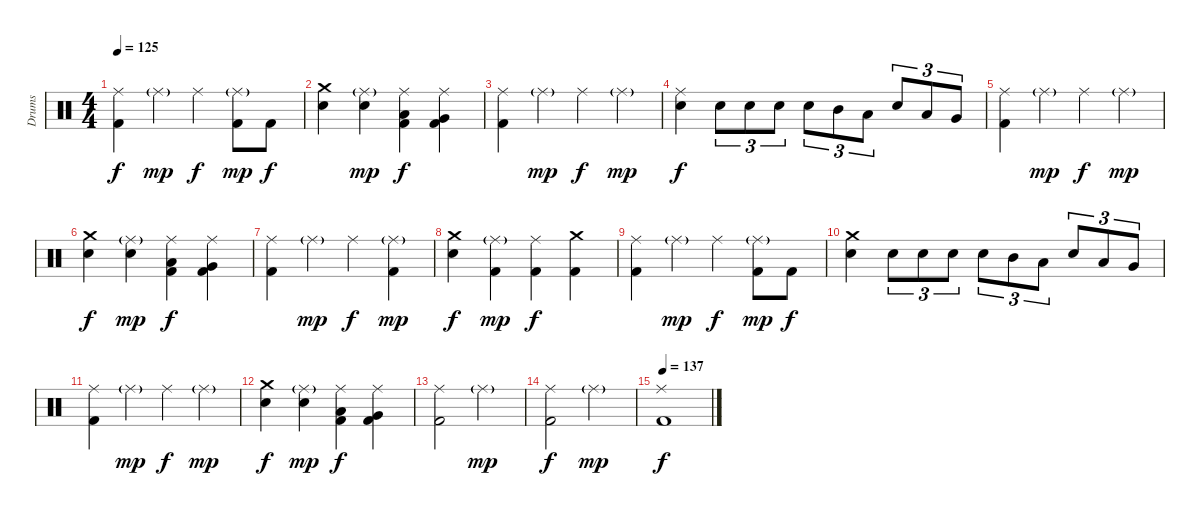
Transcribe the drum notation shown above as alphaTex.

\track ("Drums" "Drums") {instrument percussion}
\staff {score}
\articulation defaults
\ts (4 4)
\tempo 125
\clef neutral
\ks c
("Ride (middle)" "Kick (hit) 2").4{dy f} "Ride (middle)"{g}.4{dy mp} "Ride (middle)".4{dy f} ("Ride (middle)"{g} "Kick (hit) 2").8{dy mp} "Kick (hit) 2".8{dy f} |
("Crash medium (hit)" "Electric Snare (hit)").4 ("Ride (middle)"{g} "Electric Snare (hit)").4{dy mp} ("Ride (middle)" "Low Tom (hit)" "Kick (hit) 2").4{dy f} ("Ride (middle)" "Very Low Tom (hit)" "Kick (hit) 2").4 |
("Ride (middle)" "Kick (hit) 2").4 "Ride (middle)"{g}.4{dy mp} "Ride (middle)".4{dy f} "Ride (middle)"{g}.4{dy mp} |
("Ride (middle)" "Electric Snare (hit)").4{dy f} "Electric Snare (hit)".8{tu (3 2)} "Electric Snare (hit)".8{tu (3 2)} "Electric Snare (hit)".8{tu (3 2)} "Electric Snare (hit)".8{tu (3 2)} "Mid Tom (hit)".8{tu (3 2)} "Low Tom (hit)".8{tu (3 2)} "Electric Snare (hit)".8{tu (3 2)} "Low Tom (hit)".8{tu (3 2)} "Very Low Tom (hit)".8{tu (3 2)} |
("Ride (middle)" "Kick (hit) 2").4 "Ride (middle)"{g}.4{dy mp} "Ride (middle)".4{dy f} "Ride (middle)"{g}.4{dy mp} |
("Crash medium (hit)" "Electric Snare (hit)").4{dy f} ("Ride (middle)"{g} "Electric Snare (hit)").4{dy mp} ("Ride (middle)" "Low Tom (hit)" "Kick (hit) 2").4{dy f} ("Ride (middle)" "Very Low Tom (hit)" "Kick (hit) 2").4 |
("Ride (middle)" "Kick (hit) 2").4 "Ride (middle)"{g}.4{dy mp} "Ride (middle)".4{dy f} ("Ride (middle)"{g} "Kick (hit) 2").4{dy mp} |
("Crash medium (hit)" "Electric Snare (hit)").4{dy f} ("Ride (middle)"{g} "Kick (hit) 2").4{dy mp} ("Ride (middle)" "Kick (hit) 2").4{dy f} ("Crash medium (hit)" "Kick (hit) 2").4 |
("Ride (middle)" "Kick (hit) 2").4 "Ride (middle)"{g}.4{dy mp} "Ride (middle)".4{dy f} ("Ride (middle)"{g} "Kick (hit) 2").8{dy mp} "Kick (hit) 2".8{dy f} |
("Crash medium (hit)" "Electric Snare (hit)").4 "Electric Snare (hit)".8{tu (3 2)} "Electric Snare (hit)".8{tu (3 2)} "Electric Snare (hit)".8{tu (3 2)} "Electric Snare (hit)".8{tu (3 2)} "Mid Tom (hit)".8{tu (3 2)} "Low Tom (hit)".8{tu (3 2)} "Electric Snare (hit)".8{tu (3 2)} "Low Tom (hit)".8{tu (3 2)} "Very Low Tom (hit)".8{tu (3 2)} |
("Ride (middle)" "Kick (hit) 2").4 "Ride (middle)"{g}.4{dy mp} "Ride (middle)".4{dy f} "Ride (middle)"{g}.4{dy mp} |
("Crash medium (hit)" "Electric Snare (hit)").4{dy f} ("Ride (middle)"{g} "Electric Snare (hit)").4{dy mp} ("Ride (middle)" "Low Tom (hit)" "Kick (hit) 2").4{dy f} ("Ride (middle)" "Very Low Tom (hit)" "Kick (hit) 2").4 |
("Ride (middle)" "Kick (hit) 2").2 "Ride (middle)"{g}.2{dy mp} |
("Ride (middle)" "Kick (hit) 2").2{dy f} "Ride (middle)"{g}.2{dy mp} |
\tempo 137
("Ride (middle)" "Kick (hit) 2").1{dy f}
